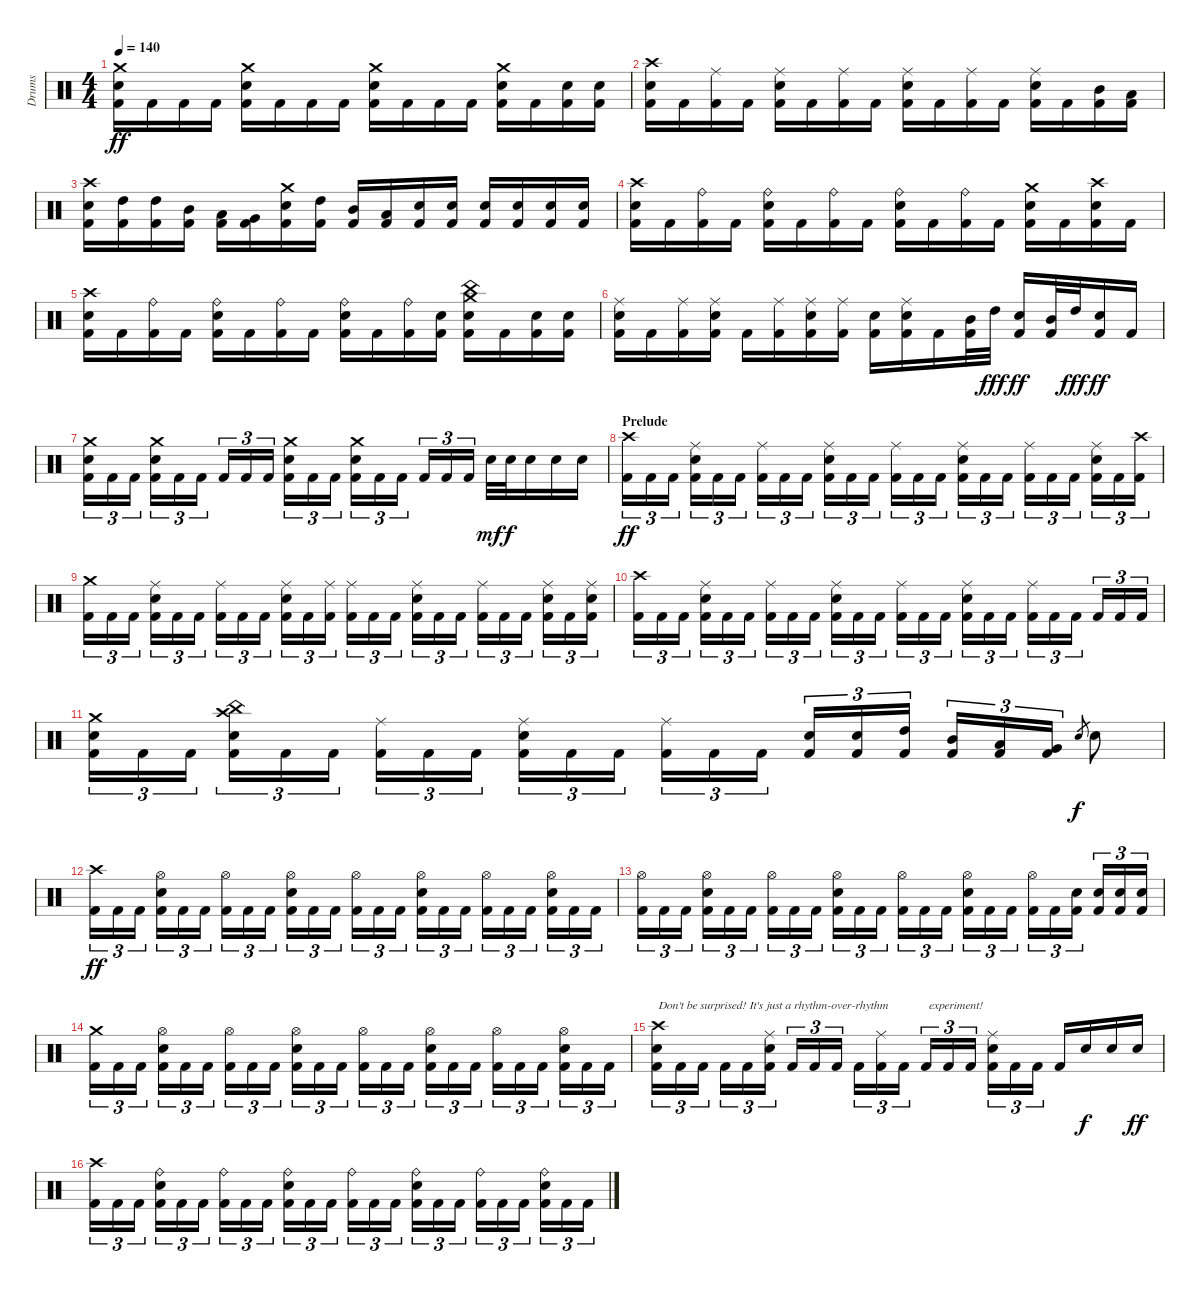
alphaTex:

\track ("Drums" "Drums") {instrument percussion}
\staff {score}
\articulation defaults
\ts (4 4)
\tempo 140
\clef neutral
\ks c
("Crash medium (hit)" "Snare (hit) 2" "Kick (hit) 2").16{dy ff} "Kick (hit) 2".16 "Kick (hit) 2".16 "Kick (hit) 2".16 ("Crash medium (hit)" "Snare (hit) 2" "Kick (hit) 2").16 "Kick (hit) 2".16 "Kick (hit) 2".16 "Kick (hit) 2".16 ("Crash medium (hit)" "Snare (hit) 2" "Kick (hit) 2").16 "Kick (hit) 2".16 "Kick (hit) 2".16 "Kick (hit) 2".16 ("Crash medium (hit)" "Snare (hit) 2" "Kick (hit) 2").16 "Kick (hit) 2".16 ("Snare (hit) 2" "Kick (hit) 2").16 ("Snare (hit) 2" "Kick (hit) 2").16 |
("Crash high (hit)" "Snare (hit) 2" "Kick (hit) 2").16 "Kick (hit) 2".16 ("Ride (middle)" "Kick (hit) 2").16 "Kick (hit) 2".16 ("Ride (middle)" "Snare (hit) 2" "Kick (hit) 2").16 "Kick (hit) 2".16 ("Ride (middle)" "Kick (hit) 2").16 "Kick (hit) 2".16 ("Ride (middle)" "Snare (hit) 2" "Kick (hit) 2").16 "Kick (hit) 2".16 ("Ride (middle)" "Kick (hit) 2").16 "Kick (hit) 2".16 ("Ride (middle)" "Snare (hit) 2" "Kick (hit) 2").16 "Kick (hit) 2".16 ("Mid Tom (hit)" "Kick (hit) 2").16 ("Low Tom (hit)" "Kick (hit) 2").16 |
("Crash high (hit)" "Snare (hit) 2" "Kick (hit) 2").16 ("High Tom (hit)" "Kick (hit) 2").16 ("High Tom (hit)" "Kick (hit) 2").16 ("Mid Tom (hit)" "Kick (hit) 2").16 ("Low Tom (hit)" "Kick (hit) 2").16 ("Very Low Tom (hit)" "Kick (hit) 2").16 ("Crash medium (hit)" "Snare (hit) 2" "Kick (hit) 2").16 ("High Tom (hit)" "Kick (hit) 2").16 ("Mid Tom (hit)" "Kick (hit) 2").16 ("Low Tom (hit)" "Kick (hit) 2").16 ("Snare (hit) 2" "Kick (hit) 2").16 ("Snare (hit) 2" "Kick (hit) 2").16 ("Snare (hit) 2" "Kick (hit) 2").16 ("Snare (hit) 2" "Kick (hit) 2").16 ("Snare (hit) 2" "Kick (hit) 2").16 ("Snare (hit) 2" "Kick (hit) 2").16 |
("Crash high (hit)" "Snare (hit) 2" "Kick (hit) 2").16 "Kick (hit) 2".16 ("Ride (bell)" "Kick (hit) 2").16 "Kick (hit) 2".16 ("Ride (bell)" "Snare (hit) 2" "Kick (hit) 2").16 "Kick (hit) 2".16 ("Ride (bell)" "Kick (hit) 2").16 "Kick (hit) 2".16 ("Ride (bell)" "Snare (hit) 2" "Kick (hit) 2").16 "Kick (hit) 2".16 ("Ride (bell)" "Kick (hit) 2").16 "Kick (hit) 2".16 ("Crash medium (hit)" "Snare (hit) 2" "Kick (hit) 2").16 "Kick (hit) 2".16 ("Crash high (hit)" "Snare (hit) 2" "Kick (hit) 2").16 "Kick (hit) 2".16 |
("Crash high (hit)" "Snare (hit) 2" "Kick (hit) 2").16 "Kick (hit) 2".16 ("Ride (bell)" "Kick (hit) 2").16 "Kick (hit) 2".16 ("Ride (bell)" "Snare (hit) 2" "Kick (hit) 2").16 "Kick (hit) 2".16 ("Ride (bell)" "Kick (hit) 2").16 "Kick (hit) 2".16 ("Ride (bell)" "Snare (hit) 2" "Kick (hit) 2").16 "Kick (hit) 2".16 ("Ride (bell)" "Kick (hit) 2").16 ("Snare (hit) 2" "Kick (hit) 2").16 ("Crash medium (hit)" "China (hit)" "Snare (hit) 2" "Kick (hit) 2").16 "Kick (hit) 2".16 ("Snare (hit) 2" "Kick (hit) 2").16 ("Snare (hit) 2" "Kick (hit) 2").16 |
("Ride (middle)" "Snare (hit) 2" "Kick (hit) 2").16 "Kick (hit) 2".16 ("Ride (middle)" "Kick (hit) 2").16 ("Ride (middle)" "Snare (hit) 2" "Kick (hit) 2").16 "Kick (hit) 2".16 ("Ride (middle)" "Kick (hit) 2").16 ("Ride (middle)" "Snare (hit) 2" "Kick (hit) 2").16 ("Ride (middle)" "Kick (hit) 2").16 ("Snare (hit) 2" "Kick (hit) 2").16 ("Ride (middle)" "Snare (hit) 2" "Kick (hit) 2").16 "Kick (hit) 2".16 ("Mid Tom (hit)" "Kick (hit) 2").32 "High Tom (hit)".32{dy fff} ("Snare (hit) 2" "Kick (hit) 2").16{dy ff} ("Mid Tom (hit)" "Kick (hit) 2").32 "High Tom (hit)".32{dy fff} ("Snare (hit) 2" "Kick (hit) 2").16{dy ff} "Kick (hit) 2".16 |
("Crash medium (hit)" "Snare (hit) 2" "Kick (hit) 2").16{tu (3 2)} "Kick (hit) 2".16{tu (3 2)} "Kick (hit) 2".16{tu (3 2)} ("Crash medium (hit)" "Snare (hit) 2" "Kick (hit) 2").16{tu (3 2)} "Kick (hit) 2".16{tu (3 2)} "Kick (hit) 2".16{tu (3 2)} "Kick (hit) 2".16{tu (3 2)} "Kick (hit) 2".16{tu (3 2)} "Kick (hit) 2".16{tu (3 2)} ("Crash medium (hit)" "Snare (hit) 2" "Kick (hit) 2").16{tu (3 2)} "Kick (hit) 2".16{tu (3 2)} "Kick (hit) 2".16{tu (3 2)} ("Crash medium (hit)" "Snare (hit) 2" "Kick (hit) 2").16{tu (3 2)} "Kick (hit) 2".16{tu (3 2)} "Kick (hit) 2".16{tu (3 2)} "Kick (hit) 2".16{tu (3 2)} "Kick (hit) 2".16{tu (3 2)} "Kick (hit) 2".16{tu (3 2)} "Snare (hit) 2".32{dy mf} "Snare (hit) 2".32{dy f} "Snare (hit) 2".16 "Snare (hit) 2".16 "Snare (hit) 2".16 |
\section ("" "Prelude")
("Crash high (hit)" "Kick (hit) 2").16{tu (3 2) dy ff} "Kick (hit) 2".16{tu (3 2)} "Kick (hit) 2".16{tu (3 2)} ("Ride (middle)" "Snare (hit) 2" "Kick (hit) 2").16{tu (3 2)} "Kick (hit) 2".16{tu (3 2)} "Kick (hit) 2".16{tu (3 2)} ("Ride (middle)" "Kick (hit) 2").16{tu (3 2)} "Kick (hit) 2".16{tu (3 2)} "Kick (hit) 2".16{tu (3 2)} ("Ride (middle)" "Snare (hit) 2" "Kick (hit) 2").16{tu (3 2)} "Kick (hit) 2".16{tu (3 2)} "Kick (hit) 2".16{tu (3 2)} ("Ride (middle)" "Kick (hit) 2").16{tu (3 2)} "Kick (hit) 2".16{tu (3 2)} "Kick (hit) 2".16{tu (3 2)} ("Ride (middle)" "Snare (hit) 2" "Kick (hit) 2").16{tu (3 2)} "Kick (hit) 2".16{tu (3 2)} "Kick (hit) 2".16{tu (3 2)} ("Ride (middle)" "Kick (hit) 2").16{tu (3 2)} "Kick (hit) 2".16{tu (3 2)} "Kick (hit) 2".16{tu (3 2)} ("Ride (middle)" "Snare (hit) 2" "Kick (hit) 2").16{tu (3 2)} "Kick (hit) 2".16{tu (3 2)} ("Crash high (hit)" "Kick (hit) 2").16{tu (3 2)} |
("Crash medium (hit)" "Kick (hit) 2").16{tu (3 2)} "Kick (hit) 2".16{tu (3 2)} "Kick (hit) 2".16{tu (3 2)} ("Ride (middle)" "Snare (hit) 2" "Kick (hit) 2").16{tu (3 2)} "Kick (hit) 2".16{tu (3 2)} "Kick (hit) 2".16{tu (3 2)} ("Ride (middle)" "Kick (hit) 2").16{tu (3 2)} "Kick (hit) 2".16{tu (3 2)} "Kick (hit) 2".16{tu (3 2)} ("Ride (middle)" "Snare (hit) 2" "Kick (hit) 2").16{tu (3 2)} "Kick (hit) 2".16{tu (3 2)} ("Ride (middle)" "Kick (hit) 2").16{tu (3 2)} ("Ride (middle)" "Kick (hit) 2").16{tu (3 2)} "Kick (hit) 2".16{tu (3 2)} "Kick (hit) 2".16{tu (3 2)} ("Ride (middle)" "Snare (hit) 2" "Kick (hit) 2").16{tu (3 2)} "Kick (hit) 2".16{tu (3 2)} "Kick (hit) 2".16{tu (3 2)} ("Ride (middle)" "Kick (hit) 2").16{tu (3 2)} "Kick (hit) 2".16{tu (3 2)} "Kick (hit) 2".16{tu (3 2)} ("Ride (middle)" "Snare (hit) 2" "Kick (hit) 2").16{tu (3 2)} "Kick (hit) 2".16{tu (3 2)} ("Ride (middle)" "Snare (hit) 2" "Kick (hit) 2").16{tu (3 2)} |
("Crash high (hit)" "Kick (hit) 2").16{tu (3 2)} "Kick (hit) 2".16{tu (3 2)} "Kick (hit) 2".16{tu (3 2)} ("Ride (middle)" "Snare (hit) 2" "Kick (hit) 2").16{tu (3 2)} "Kick (hit) 2".16{tu (3 2)} "Kick (hit) 2".16{tu (3 2)} ("Ride (middle)" "Kick (hit) 2").16{tu (3 2)} "Kick (hit) 2".16{tu (3 2)} "Kick (hit) 2".16{tu (3 2)} ("Ride (middle)" "Snare (hit) 2" "Kick (hit) 2").16{tu (3 2)} "Kick (hit) 2".16{tu (3 2)} "Kick (hit) 2".16{tu (3 2)} ("Ride (middle)" "Kick (hit) 2").16{tu (3 2)} "Kick (hit) 2".16{tu (3 2)} "Kick (hit) 2".16{tu (3 2)} ("Ride (middle)" "Snare (hit) 2" "Kick (hit) 2").16{tu (3 2)} "Kick (hit) 2".16{tu (3 2)} "Kick (hit) 2".16{tu (3 2)} ("Ride (middle)" "Kick (hit) 2").16{tu (3 2)} "Kick (hit) 2".16{tu (3 2)} "Kick (hit) 2".16{tu (3 2)} "Kick (hit) 2".16{tu (3 2)} "Kick (hit) 2".16{tu (3 2)} "Kick (hit) 2".16{tu (3 2)} |
("Crash medium (hit)" "Snare (hit) 2" "Kick (hit) 2").16{tu (3 2)} "Kick (hit) 2".16{tu (3 2)} "Kick (hit) 2".16{tu (3 2)} ("China (hit)" "Crash high (hit)" "Snare (hit) 2" "Kick (hit) 2").16{tu (3 2)} "Kick (hit) 2".16{tu (3 2)} "Kick (hit) 2".16{tu (3 2)} ("Ride (middle)" "Kick (hit) 2").16{tu (3 2)} "Kick (hit) 2".16{tu (3 2)} "Kick (hit) 2".16{tu (3 2)} ("Ride (middle)" "Snare (hit) 2" "Kick (hit) 2").16{tu (3 2)} "Kick (hit) 2".16{tu (3 2)} "Kick (hit) 2".16{tu (3 2)} ("Ride (middle)" "Kick (hit) 2").16{tu (3 2)} "Kick (hit) 2".16{tu (3 2)} "Kick (hit) 2".16{tu (3 2)} ("Snare (hit) 2" "Kick (hit) 2").16{tu (3 2)} ("Snare (hit) 2" "Kick (hit) 2").16{tu (3 2)} ("High Tom (hit)" "Kick (hit) 2").16{tu (3 2)} ("Mid Tom (hit)" "Kick (hit) 2").16{tu (3 2)} ("Low Tom (hit)" "Kick (hit) 2").16{tu (3 2)} ("Very Low Tom (hit)" "Kick (hit) 2").16{tu (3 2)} "Snare (hit) 2".8{gr dy f} "Snare (hit) 2".8 |
("Crash high (hit)" "Kick (hit) 2").16{tu (3 2) dy ff} "Kick (hit) 2".16{tu (3 2)} "Kick (hit) 2".16{tu (3 2)} ("Hi-Hat (open)" "Snare (hit) 2" "Kick (hit) 2").16{tu (3 2)} "Kick (hit) 2".16{tu (3 2)} "Kick (hit) 2".16{tu (3 2)} ("Hi-Hat (open)" "Kick (hit) 2").16{tu (3 2)} "Kick (hit) 2".16{tu (3 2)} "Kick (hit) 2".16{tu (3 2)} ("Hi-Hat (open)" "Snare (hit) 2" "Kick (hit) 2").16{tu (3 2)} "Kick (hit) 2".16{tu (3 2)} "Kick (hit) 2".16{tu (3 2)} ("Hi-Hat (open)" "Kick (hit) 2").16{tu (3 2)} "Kick (hit) 2".16{tu (3 2)} "Kick (hit) 2".16{tu (3 2)} ("Hi-Hat (open)" "Snare (hit) 2" "Kick (hit) 2").16{tu (3 2)} "Kick (hit) 2".16{tu (3 2)} "Kick (hit) 2".16{tu (3 2)} ("Hi-Hat (open)" "Kick (hit) 2").16{tu (3 2)} "Kick (hit) 2".16{tu (3 2)} "Kick (hit) 2".16{tu (3 2)} ("Hi-Hat (open)" "Snare (hit) 2" "Kick (hit) 2").16{tu (3 2)} "Kick (hit) 2".16{tu (3 2)} "Kick (hit) 2".16{tu (3 2)} |
("Hi-Hat (open)" "Kick (hit) 2").16{tu (3 2)} "Kick (hit) 2".16{tu (3 2)} "Kick (hit) 2".16{tu (3 2)} ("Hi-Hat (open)" "Snare (hit) 2" "Kick (hit) 2").16{tu (3 2)} "Kick (hit) 2".16{tu (3 2)} "Kick (hit) 2".16{tu (3 2)} ("Hi-Hat (open)" "Kick (hit) 2").16{tu (3 2)} "Kick (hit) 2".16{tu (3 2)} "Kick (hit) 2".16{tu (3 2)} ("Hi-Hat (open)" "Snare (hit) 2" "Kick (hit) 2").16{tu (3 2)} "Kick (hit) 2".16{tu (3 2)} "Kick (hit) 2".16{tu (3 2)} ("Hi-Hat (open)" "Kick (hit) 2").16{tu (3 2)} "Kick (hit) 2".16{tu (3 2)} "Kick (hit) 2".16{tu (3 2)} ("Hi-Hat (open)" "Snare (hit) 2" "Kick (hit) 2").16{tu (3 2)} "Kick (hit) 2".16{tu (3 2)} "Kick (hit) 2".16{tu (3 2)} ("Hi-Hat (open)" "Kick (hit) 2").16{tu (3 2)} "Kick (hit) 2".16{tu (3 2)} ("Snare (hit) 2" "Kick (hit) 2").16{tu (3 2)} ("Snare (hit) 2" "Kick (hit) 2").16{tu (3 2)} ("Snare (hit) 2" "Kick (hit) 2").16{tu (3 2)} ("Snare (hit) 2" "Kick (hit) 2").16{tu (3 2)} |
("Crash medium (hit)" "Kick (hit) 2").16{tu (3 2)} "Kick (hit) 2".16{tu (3 2)} "Kick (hit) 2".16{tu (3 2)} ("Hi-Hat (open)" "Snare (hit) 2" "Kick (hit) 2").16{tu (3 2)} "Kick (hit) 2".16{tu (3 2)} "Kick (hit) 2".16{tu (3 2)} ("Hi-Hat (open)" "Kick (hit) 2").16{tu (3 2)} "Kick (hit) 2".16{tu (3 2)} "Kick (hit) 2".16{tu (3 2)} ("Hi-Hat (open)" "Snare (hit) 2" "Kick (hit) 2").16{tu (3 2)} "Kick (hit) 2".16{tu (3 2)} "Kick (hit) 2".16{tu (3 2)} ("Hi-Hat (open)" "Kick (hit) 2").16{tu (3 2)} "Kick (hit) 2".16{tu (3 2)} "Kick (hit) 2".16{tu (3 2)} ("Hi-Hat (open)" "Snare (hit) 2" "Kick (hit) 2").16{tu (3 2)} "Kick (hit) 2".16{tu (3 2)} "Kick (hit) 2".16{tu (3 2)} ("Hi-Hat (open)" "Kick (hit) 2").16{tu (3 2)} "Kick (hit) 2".16{tu (3 2)} "Kick (hit) 2".16{tu (3 2)} ("Hi-Hat (open)" "Snare (hit) 2" "Kick (hit) 2").16{tu (3 2)} "Kick (hit) 2".16{tu (3 2)} "Kick (hit) 2".16{tu (3 2)} |
("Crash high (hit)" "Snare (hit) 2" "Kick (hit) 2").16{tu (3 2) txt "Don't be surprised! It's just a rhythm-over-rhythm"} "Kick (hit) 2".16{tu (3 2)} "Kick (hit) 2".16{tu (3 2)} "Kick (hit) 2".16{tu (3 2)} "Kick (hit) 2".16{tu (3 2)} ("Ride (middle)" "Snare (hit) 2" "Kick (hit) 2").16{tu (3 2)} "Kick (hit) 2".16{tu (3 2)} "Kick (hit) 2".16{tu (3 2)} "Kick (hit) 2".16{tu (3 2)} "Kick (hit) 2".16{tu (3 2)} ("Ride (middle)" "Kick (hit) 2").16{tu (3 2)} "Kick (hit) 2".16{tu (3 2)} "Kick (hit) 2".16{tu (3 2) txt " experiment!"} "Kick (hit) 2".16{tu (3 2)} "Kick (hit) 2".16{tu (3 2)} ("Ride (middle)" "Snare (hit) 2" "Kick (hit) 2").16{tu (3 2)} "Kick (hit) 2".16{tu (3 2)} "Kick (hit) 2".16{tu (3 2)} "Kick (hit) 2".16 "Snare (hit) 2".16{dy f} "Snare (hit) 2".16 "Snare (hit) 2".16{dy ff} |
("Crash high (hit)" "Kick (hit) 2").16{tu (3 2)} "Kick (hit) 2".16{tu (3 2)} "Kick (hit) 2".16{tu (3 2)} ("Ride (bell)" "Snare (hit) 2" "Kick (hit) 2").16{tu (3 2)} "Kick (hit) 2".16{tu (3 2)} "Kick (hit) 2".16{tu (3 2)} ("Ride (bell)" "Kick (hit) 2").16{tu (3 2)} "Kick (hit) 2".16{tu (3 2)} "Kick (hit) 2".16{tu (3 2)} ("Ride (bell)" "Snare (hit) 2" "Kick (hit) 2").16{tu (3 2)} "Kick (hit) 2".16{tu (3 2)} "Kick (hit) 2".16{tu (3 2)} ("Ride (bell)" "Kick (hit) 2").16{tu (3 2)} "Kick (hit) 2".16{tu (3 2)} "Kick (hit) 2".16{tu (3 2)} ("Ride (bell)" "Snare (hit) 2" "Kick (hit) 2").16{tu (3 2)} "Kick (hit) 2".16{tu (3 2)} "Kick (hit) 2".16{tu (3 2)} ("Ride (bell)" "Kick (hit) 2").16{tu (3 2)} "Kick (hit) 2".16{tu (3 2)} "Kick (hit) 2".16{tu (3 2)} ("Ride (bell)" "Snare (hit) 2" "Kick (hit) 2").16{tu (3 2)} "Kick (hit) 2".16{tu (3 2)} "Kick (hit) 2".16{tu (3 2)}
